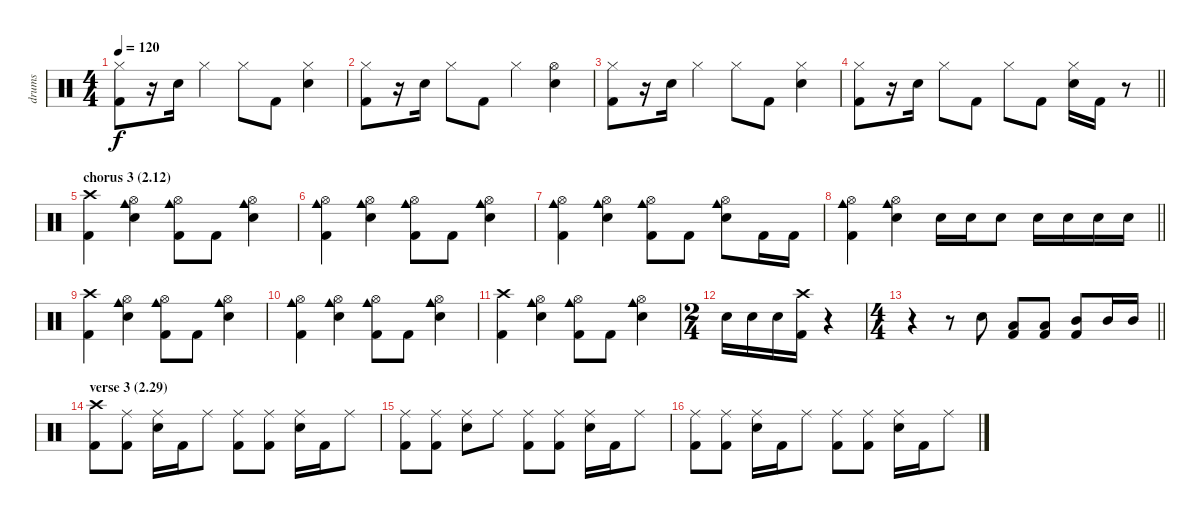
\track ("drums" "drums") {instrument percussion}
\staff {score}
\articulation defaults
\ts (4 4)
\tempo 120
\clef neutral
\ks c
("Hi-Hat (closed)" "Kick (hit) 2").8{dy f} r.16 "Electric Snare (hit)".16 "Hi-Hat (closed)".4 "Hi-Hat (closed)".8 "Kick (hit) 2".8 ("Hi-Hat (closed)" "Electric Snare (hit)").4 |
("Hi-Hat (closed)" "Kick (hit) 2").8 r.16 "Electric Snare (hit)".16 "Hi-Hat (closed)".8 "Kick (hit) 2".8 "Hi-Hat (closed)".4 ("Hi-Hat (open)" "Electric Snare (hit)").4 |
("Hi-Hat (closed)" "Kick (hit) 2").8 r.16 "Electric Snare (hit)".16 "Hi-Hat (closed)".4 "Hi-Hat (closed)".8 "Kick (hit) 2".8 ("Hi-Hat (closed)" "Electric Snare (hit)").4 |
\barLineRight lightlight
("Hi-Hat (closed)" "Kick (hit) 2").8 r.16 "Electric Snare (hit)".16 "Hi-Hat (closed)".8 "Kick (hit) 2".8 "Hi-Hat (closed)".8 "Kick (hit) 2".8 ("Hi-Hat (closed)" "Electric Snare (hit)").16 "Kick (hit) 2".16 r.8 |
\section ("" "chorus 3 (2.12)")
("Crash high (hit)" "Kick (hit) 2").4 ("Hi-Hat (open)" "Cowbell medium (hit)" "Electric Snare (hit)").4 ("Hi-Hat (open)" "Cowbell medium (hit)" "Kick (hit) 2").8 "Kick (hit) 2".8 ("Hi-Hat (open)" "Cowbell medium (hit)" "Electric Snare (hit)").4 |
("Hi-Hat (open)" "Cowbell medium (hit)" "Kick (hit) 2").4 ("Hi-Hat (open)" "Cowbell medium (hit)" "Electric Snare (hit)").4 ("Hi-Hat (open)" "Cowbell medium (hit)" "Kick (hit) 2").8 "Kick (hit) 2".8 ("Hi-Hat (open)" "Cowbell medium (hit)" "Electric Snare (hit)").4 |
("Hi-Hat (open)" "Cowbell medium (hit)" "Kick (hit) 2").4 ("Hi-Hat (open)" "Cowbell medium (hit)" "Electric Snare (hit)").4 ("Hi-Hat (open)" "Cowbell medium (hit)" "Kick (hit) 2").8 "Kick (hit) 2".8 ("Hi-Hat (open)" "Cowbell medium (hit)" "Electric Snare (hit)").8 "Kick (hit) 2".16 "Kick (hit) 2".16 |
\barLineRight lightlight
("Hi-Hat (open)" "Cowbell medium (hit)" "Kick (hit) 2").4 ("Hi-Hat (open)" "Cowbell medium (hit)" "Electric Snare (hit)").4 "Electric Snare (hit)".16 "Electric Snare (hit)".16 "Electric Snare (hit)".8 "Electric Snare (hit)".16 "Electric Snare (hit)".16 "Electric Snare (hit)".16 "Electric Snare (hit)".16 |
("Crash high (hit)" "Kick (hit) 2").4 ("Hi-Hat (open)" "Cowbell medium (hit)" "Electric Snare (hit)").4 ("Hi-Hat (open)" "Cowbell medium (hit)" "Kick (hit) 2").8 "Kick (hit) 2".8 ("Hi-Hat (open)" "Cowbell medium (hit)" "Electric Snare (hit)").4 |
("Hi-Hat (open)" "Cowbell medium (hit)" "Kick (hit) 2").4 ("Hi-Hat (open)" "Cowbell medium (hit)" "Electric Snare (hit)").4 ("Hi-Hat (open)" "Cowbell medium (hit)" "Kick (hit) 2").8 "Kick (hit) 2".8 ("Hi-Hat (open)" "Cowbell medium (hit)" "Electric Snare (hit)").4 |
("Crash high (hit)" "Kick (hit) 2").4 ("Hi-Hat (open)" "Cowbell medium (hit)" "Electric Snare (hit)").4 ("Hi-Hat (open)" "Cowbell medium (hit)" "Kick (hit) 2").8 "Kick (hit) 2".8 ("Hi-Hat (open)" "Cowbell medium (hit)" "Electric Snare (hit)").4 |
\ts (2 4)
"Electric Snare (hit)".16 "Electric Snare (hit)".16 "Electric Snare (hit)".16 ("Crash high (hit)" "Kick (hit) 2").16 r.4 |
\ts (4 4)
\barLineRight lightlight
r.4 r.8 "Electric Snare (hit)".8 ("Low Tom (hit)" "Kick (hit) 2").8 ("Low Tom (hit)" "Kick (hit) 2").8 ("Mid Tom (hit)" "Kick (hit) 2").8 "Mid Tom (hit)".16 "Mid Tom (hit)".16 |
\section ("" "verse 3 (2.29)")
("Crash high (hit)" "Kick (hit) 2").8 ("Ride (middle)" "Kick (hit) 2").8 ("Ride (middle)" "Electric Snare (hit)").16 "Kick (hit) 2".16 "Ride (middle)".8 ("Ride (middle)" "Kick (hit) 2").8 ("Ride (middle)" "Kick (hit) 2").8 ("Ride (middle)" "Electric Snare (hit)").16 "Kick (hit) 2".16 "Ride (middle)".8 |
("Ride (middle)" "Kick (hit) 2").8 ("Ride (middle)" "Kick (hit) 2").8 ("Ride (middle)" "Electric Snare (hit)").8 "Ride (middle)".8 ("Ride (middle)" "Kick (hit) 2").8 ("Ride (middle)" "Kick (hit) 2").8 ("Ride (middle)" "Electric Snare (hit)").16 "Kick (hit) 2".16 "Ride (middle)".8 |
("Ride (middle)" "Kick (hit) 2").8 ("Ride (middle)" "Kick (hit) 2").8 ("Ride (middle)" "Electric Snare (hit)").16 "Kick (hit) 2".16 "Ride (middle)".8 ("Ride (middle)" "Kick (hit) 2").8 ("Ride (middle)" "Kick (hit) 2").8 ("Ride (middle)" "Electric Snare (hit)").16 "Kick (hit) 2".16 "Ride (middle)".8
